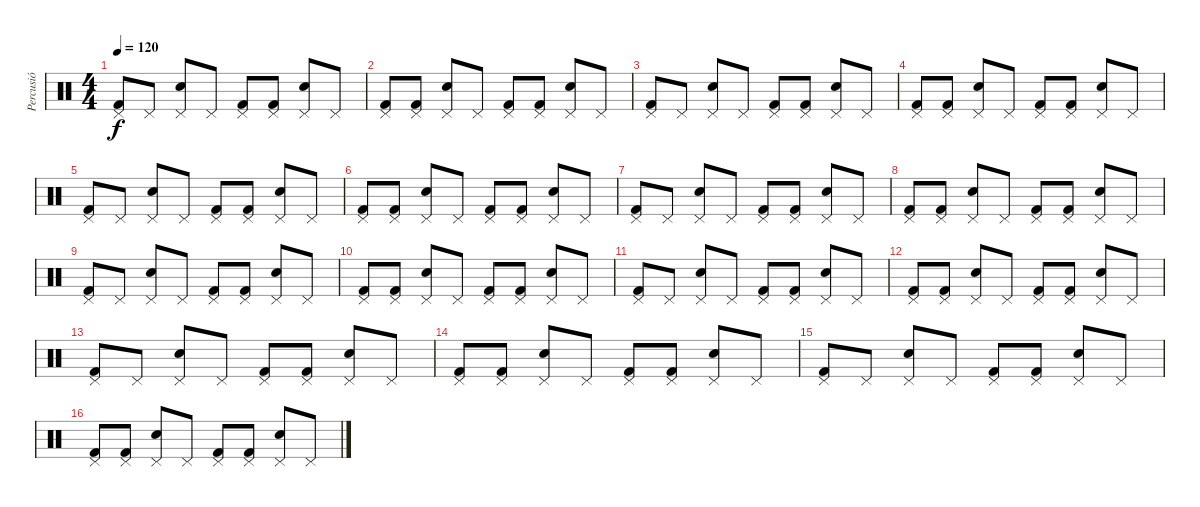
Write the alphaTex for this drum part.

\track ("Percusió" "Percusió") {instrument percussion}
\staff {score}
\articulation defaults
\ts (4 4)
\tempo 120
\clef neutral
\ks c
("Pedal Hi-Hat (hit)" "Kick (hit) 2").8{dy f} "Pedal Hi-Hat (hit)".8 ("Pedal Hi-Hat (hit)" "Snare (hit) 2").8 "Pedal Hi-Hat (hit)".8 ("Pedal Hi-Hat (hit)" "Kick (hit) 2").8 ("Pedal Hi-Hat (hit)" "Kick (hit) 2").8 ("Pedal Hi-Hat (hit)" "Snare (hit) 2").8 "Pedal Hi-Hat (hit)".8 |
("Pedal Hi-Hat (hit)" "Kick (hit) 2").8 ("Pedal Hi-Hat (hit)" "Kick (hit) 2").8 ("Pedal Hi-Hat (hit)" "Snare (hit) 2").8 "Pedal Hi-Hat (hit)".8 ("Pedal Hi-Hat (hit)" "Kick (hit) 2").8 ("Pedal Hi-Hat (hit)" "Kick (hit) 2").8 ("Pedal Hi-Hat (hit)" "Snare (hit) 2").8 "Pedal Hi-Hat (hit)".8 |
("Pedal Hi-Hat (hit)" "Kick (hit) 2").8 "Pedal Hi-Hat (hit)".8 ("Pedal Hi-Hat (hit)" "Snare (hit) 2").8 "Pedal Hi-Hat (hit)".8 ("Pedal Hi-Hat (hit)" "Kick (hit) 2").8 ("Pedal Hi-Hat (hit)" "Kick (hit) 2").8 ("Pedal Hi-Hat (hit)" "Snare (hit) 2").8 "Pedal Hi-Hat (hit)".8 |
("Pedal Hi-Hat (hit)" "Kick (hit) 2").8 ("Pedal Hi-Hat (hit)" "Kick (hit) 2").8 ("Pedal Hi-Hat (hit)" "Snare (hit) 2").8 "Pedal Hi-Hat (hit)".8 ("Pedal Hi-Hat (hit)" "Kick (hit) 2").8 ("Pedal Hi-Hat (hit)" "Kick (hit) 2").8 ("Pedal Hi-Hat (hit)" "Snare (hit) 2").8 "Pedal Hi-Hat (hit)".8 |
("Pedal Hi-Hat (hit)" "Kick (hit) 2").8 "Pedal Hi-Hat (hit)".8 ("Pedal Hi-Hat (hit)" "Snare (hit) 2").8 "Pedal Hi-Hat (hit)".8 ("Pedal Hi-Hat (hit)" "Kick (hit) 2").8 ("Pedal Hi-Hat (hit)" "Kick (hit) 2").8 ("Pedal Hi-Hat (hit)" "Snare (hit) 2").8 "Pedal Hi-Hat (hit)".8 |
("Pedal Hi-Hat (hit)" "Kick (hit) 2").8 ("Pedal Hi-Hat (hit)" "Kick (hit) 2").8 ("Pedal Hi-Hat (hit)" "Snare (hit) 2").8 "Pedal Hi-Hat (hit)".8 ("Pedal Hi-Hat (hit)" "Kick (hit) 2").8 ("Pedal Hi-Hat (hit)" "Kick (hit) 2").8 ("Pedal Hi-Hat (hit)" "Snare (hit) 2").8 "Pedal Hi-Hat (hit)".8 |
("Pedal Hi-Hat (hit)" "Kick (hit) 2").8 "Pedal Hi-Hat (hit)".8 ("Pedal Hi-Hat (hit)" "Snare (hit) 2").8 "Pedal Hi-Hat (hit)".8 ("Pedal Hi-Hat (hit)" "Kick (hit) 2").8 ("Pedal Hi-Hat (hit)" "Kick (hit) 2").8 ("Pedal Hi-Hat (hit)" "Snare (hit) 2").8 "Pedal Hi-Hat (hit)".8 |
("Pedal Hi-Hat (hit)" "Kick (hit) 2").8 ("Pedal Hi-Hat (hit)" "Kick (hit) 2").8 ("Pedal Hi-Hat (hit)" "Snare (hit) 2").8 "Pedal Hi-Hat (hit)".8 ("Pedal Hi-Hat (hit)" "Kick (hit) 2").8 ("Pedal Hi-Hat (hit)" "Kick (hit) 2").8 ("Pedal Hi-Hat (hit)" "Snare (hit) 2").8 "Pedal Hi-Hat (hit)".8 |
("Pedal Hi-Hat (hit)" "Kick (hit) 2").8{volume 15} "Pedal Hi-Hat (hit)".8 ("Pedal Hi-Hat (hit)" "Snare (hit) 2").8 "Pedal Hi-Hat (hit)".8 ("Pedal Hi-Hat (hit)" "Kick (hit) 2").8 ("Pedal Hi-Hat (hit)" "Kick (hit) 2").8 ("Pedal Hi-Hat (hit)" "Snare (hit) 2").8 "Pedal Hi-Hat (hit)".8 |
("Pedal Hi-Hat (hit)" "Kick (hit) 2").8{volume 13} ("Pedal Hi-Hat (hit)" "Kick (hit) 2").8 ("Pedal Hi-Hat (hit)" "Snare (hit) 2").8 "Pedal Hi-Hat (hit)".8 ("Pedal Hi-Hat (hit)" "Kick (hit) 2").8 ("Pedal Hi-Hat (hit)" "Kick (hit) 2").8 ("Pedal Hi-Hat (hit)" "Snare (hit) 2").8 "Pedal Hi-Hat (hit)".8 |
("Pedal Hi-Hat (hit)" "Kick (hit) 2").8{volume 12} "Pedal Hi-Hat (hit)".8 ("Pedal Hi-Hat (hit)" "Snare (hit) 2").8 "Pedal Hi-Hat (hit)".8 ("Pedal Hi-Hat (hit)" "Kick (hit) 2").8 ("Pedal Hi-Hat (hit)" "Kick (hit) 2").8 ("Pedal Hi-Hat (hit)" "Snare (hit) 2").8 "Pedal Hi-Hat (hit)".8 |
("Pedal Hi-Hat (hit)" "Kick (hit) 2").8{volume 11} ("Pedal Hi-Hat (hit)" "Kick (hit) 2").8 ("Pedal Hi-Hat (hit)" "Snare (hit) 2").8 "Pedal Hi-Hat (hit)".8 ("Pedal Hi-Hat (hit)" "Kick (hit) 2").8 ("Pedal Hi-Hat (hit)" "Kick (hit) 2").8 ("Pedal Hi-Hat (hit)" "Snare (hit) 2").8 "Pedal Hi-Hat (hit)".8 |
("Pedal Hi-Hat (hit)" "Kick (hit) 2").8{volume 10} "Pedal Hi-Hat (hit)".8 ("Pedal Hi-Hat (hit)" "Snare (hit) 2").8 "Pedal Hi-Hat (hit)".8 ("Pedal Hi-Hat (hit)" "Kick (hit) 2").8 ("Pedal Hi-Hat (hit)" "Kick (hit) 2").8 ("Pedal Hi-Hat (hit)" "Snare (hit) 2").8 "Pedal Hi-Hat (hit)".8 |
("Pedal Hi-Hat (hit)" "Kick (hit) 2").8{volume 9} ("Pedal Hi-Hat (hit)" "Kick (hit) 2").8 ("Pedal Hi-Hat (hit)" "Snare (hit) 2").8 "Pedal Hi-Hat (hit)".8 ("Pedal Hi-Hat (hit)" "Kick (hit) 2").8 ("Pedal Hi-Hat (hit)" "Kick (hit) 2").8 ("Pedal Hi-Hat (hit)" "Snare (hit) 2").8 "Pedal Hi-Hat (hit)".8 |
("Pedal Hi-Hat (hit)" "Kick (hit) 2").8{volume 7} "Pedal Hi-Hat (hit)".8 ("Pedal Hi-Hat (hit)" "Snare (hit) 2").8 "Pedal Hi-Hat (hit)".8 ("Pedal Hi-Hat (hit)" "Kick (hit) 2").8 ("Pedal Hi-Hat (hit)" "Kick (hit) 2").8 ("Pedal Hi-Hat (hit)" "Snare (hit) 2").8 "Pedal Hi-Hat (hit)".8 |
("Pedal Hi-Hat (hit)" "Kick (hit) 2").8{volume 6} ("Pedal Hi-Hat (hit)" "Kick (hit) 2").8 ("Pedal Hi-Hat (hit)" "Snare (hit) 2").8 "Pedal Hi-Hat (hit)".8 ("Pedal Hi-Hat (hit)" "Kick (hit) 2").8 ("Pedal Hi-Hat (hit)" "Kick (hit) 2").8 ("Pedal Hi-Hat (hit)" "Snare (hit) 2").8 "Pedal Hi-Hat (hit)".8
